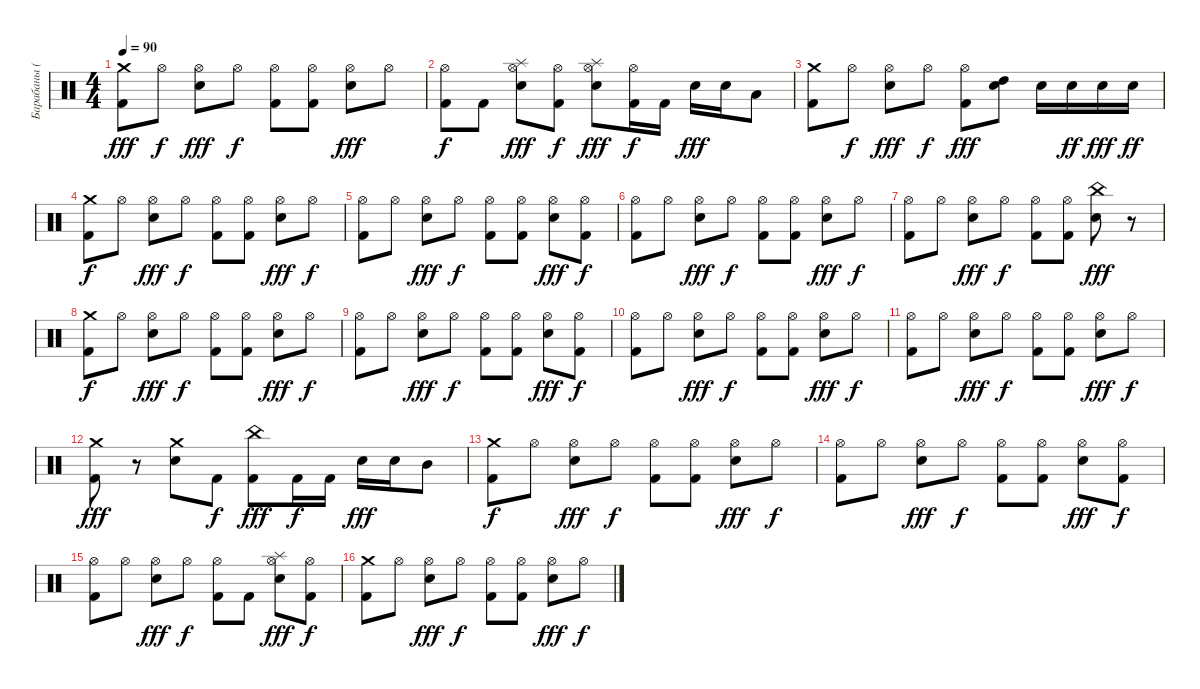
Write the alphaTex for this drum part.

\track ("Барабаны (Илья)" "Барабаны (") {instrument percussion}
\staff {score}
\articulation defaults
\ts (4 4)
\tempo 90
\clef neutral
\ks c
("Crash medium (hit)" "Kick (hit) 2").8{dy fff} "Hi-Hat (open)".8{dy f} ("Snare (hit) 2" "Hi-Hat (open)").8{dy fff} "Hi-Hat (open)".8{dy f} ("Hi-Hat (open)" "Kick (hit) 2").8 ("Hi-Hat (open)" "Kick (hit) 2").8 ("Snare (hit) 2" "Hi-Hat (open)").8{dy fff} "Hi-Hat (open)".8 |
("Hi-Hat (open)" "Kick (hit) 2").8{dy f} "Kick (hit) 2".8 ("Snare (hit) 2" "Hi-Hat (open)" "Splash (hit)").8{dy fff} ("Hi-Hat (open)" "Kick (hit) 2").8{dy f} ("Splash (hit)" "Snare (hit) 2" "Hi-Hat (open)").8{dy fff} ("Hi-Hat (open)" "Kick (hit) 2").16{dy f} "Kick (hit) 2".16 "Snare (hit) 2".16{dy fff} "Snare (hit) 2".16 "Low Tom (hit)".8 |
("Crash medium (hit)" "Kick (hit) 2").8 "Hi-Hat (open)".8{dy f} ("Snare (hit) 2" "Hi-Hat (open)").8{dy fff} "Hi-Hat (open)".8{dy f} ("Hi-Hat (open)" "Kick (hit) 2").8{dy fff} ("High Tom (hit)" "Snare (hit) 2").8 "Snare (hit) 2".16 "Snare (hit) 2".16{dy ff} "Snare (hit) 2".16{dy fff} "Snare (hit) 2".16{dy ff} |
("Kick (hit) 2" "Crash medium (hit)").8{dy f} "Hi-Hat (open)".8 ("Snare (hit) 2" "Hi-Hat (open)").8{dy fff} "Hi-Hat (open)".8{dy f} ("Kick (hit) 2" "Hi-Hat (open)").8 ("Kick (hit) 2" "Hi-Hat (open)").8 ("Hi-Hat (open)" "Snare (hit) 2").8{dy fff} "Hi-Hat (open)".8{dy f} |
("Hi-Hat (open)" "Kick (hit) 2").8 "Hi-Hat (open)".8 ("Snare (hit) 2" "Hi-Hat (open)").8{dy fff} "Hi-Hat (open)".8{dy f} ("Hi-Hat (open)" "Kick (hit) 2").8 ("Kick (hit) 2" "Hi-Hat (open)").8 ("Snare (hit) 2" "Hi-Hat (open)").8{dy fff} ("Kick (hit) 2" "Hi-Hat (open)").8{dy f} |
("Kick (hit) 2" "Hi-Hat (open)").8 "Hi-Hat (open)".8 ("Snare (hit) 2" "Hi-Hat (open)").8{dy fff} "Hi-Hat (open)".8{dy f} ("Kick (hit) 2" "Hi-Hat (open)").8 ("Hi-Hat (open)" "Kick (hit) 2").8 ("Snare (hit) 2" "Hi-Hat (open)").8{dy fff} "Hi-Hat (open)".8{dy f} |
("Kick (hit) 2" "Hi-Hat (open)").8 "Hi-Hat (open)".8 ("Hi-Hat (open)" "Snare (hit) 2").8{dy fff} "Hi-Hat (open)".8{dy f} ("Kick (hit) 2" "Hi-Hat (open)").8 ("Kick (hit) 2" "Hi-Hat (open)").8 ("China (hit)" "Snare (hit) 2").8{dy fff} r.8 |
("Kick (hit) 2" "Crash medium (hit)").8{dy f} "Hi-Hat (open)".8 ("Snare (hit) 2" "Hi-Hat (open)").8{dy fff} "Hi-Hat (open)".8{dy f} ("Kick (hit) 2" "Hi-Hat (open)").8 ("Hi-Hat (open)" "Kick (hit) 2").8 ("Snare (hit) 2" "Hi-Hat (open)").8{dy fff} "Hi-Hat (open)".8{dy f} |
("Kick (hit) 2" "Hi-Hat (open)").8 "Hi-Hat (open)".8 ("Snare (hit) 2" "Hi-Hat (open)").8{dy fff} "Hi-Hat (open)".8{dy f} ("Kick (hit) 2" "Hi-Hat (open)").8 ("Hi-Hat (open)" "Kick (hit) 2").8 ("Snare (hit) 2" "Hi-Hat (open)").8{dy fff} ("Hi-Hat (open)" "Kick (hit) 2").8{dy f} |
("Kick (hit) 2" "Hi-Hat (open)").8 "Hi-Hat (open)".8 ("Snare (hit) 2" "Hi-Hat (open)").8{dy fff} "Hi-Hat (open)".8{dy f} ("Kick (hit) 2" "Hi-Hat (open)").8 ("Hi-Hat (open)" "Kick (hit) 2").8 ("Snare (hit) 2" "Hi-Hat (open)").8{dy fff} "Hi-Hat (open)".8{dy f} |
("Kick (hit) 2" "Hi-Hat (open)").8 "Hi-Hat (open)".8 ("Snare (hit) 2" "Hi-Hat (open)").8{dy fff} "Hi-Hat (open)".8{dy f} ("Hi-Hat (open)" "Kick (hit) 2").8 ("Hi-Hat (open)" "Kick (hit) 2").8 ("Snare (hit) 2" "Hi-Hat (open)").8{dy fff} "Hi-Hat (open)".8{dy f} |
("Crash medium (hit)" "Kick (hit) 2").8{dy fff} r.8 ("Crash medium (hit)" "Snare (hit) 2").8 "Kick (hit) 2".8{dy f} ("China (hit)" "Kick (hit) 2").8{dy fff} "Kick (hit) 2".16{dy f} "Kick (hit) 2".16 "Snare (hit) 2".16{dy fff} "Snare (hit) 2".16 "Mid Tom (hit)".8 |
("Kick (hit) 2" "Crash medium (hit)").8{dy f} "Hi-Hat (open)".8 ("Snare (hit) 2" "Hi-Hat (open)").8{dy fff} "Hi-Hat (open)".8{dy f} ("Kick (hit) 2" "Hi-Hat (open)").8 ("Kick (hit) 2" "Hi-Hat (open)").8 ("Hi-Hat (open)" "Snare (hit) 2").8{dy fff} "Hi-Hat (open)".8{dy f} |
("Hi-Hat (open)" "Kick (hit) 2").8 "Hi-Hat (open)".8 ("Snare (hit) 2" "Hi-Hat (open)").8{dy fff} "Hi-Hat (open)".8{dy f} ("Hi-Hat (open)" "Kick (hit) 2").8 ("Kick (hit) 2" "Hi-Hat (open)").8 ("Snare (hit) 2" "Hi-Hat (open)").8{dy fff} ("Kick (hit) 2" "Hi-Hat (open)").8{dy f} |
("Hi-Hat (open)" "Kick (hit) 2").8 "Hi-Hat (open)".8 ("Snare (hit) 2" "Hi-Hat (open)").8{dy fff} "Hi-Hat (open)".8{dy f} ("Hi-Hat (open)" "Kick (hit) 2").8 "Kick (hit) 2".8 ("Snare (hit) 2" "Hi-Hat (open)" "Splash (hit)").8{dy fff} ("Hi-Hat (open)" "Kick (hit) 2").8{dy f} |
("Kick (hit) 2" "Crash medium (hit)").8 "Hi-Hat (open)".8 ("Snare (hit) 2" "Hi-Hat (open)").8{dy fff} "Hi-Hat (open)".8{dy f} ("Kick (hit) 2" "Hi-Hat (open)").8 ("Kick (hit) 2" "Hi-Hat (open)").8 ("Hi-Hat (open)" "Snare (hit) 2").8{dy fff} "Hi-Hat (open)".8{dy f}
